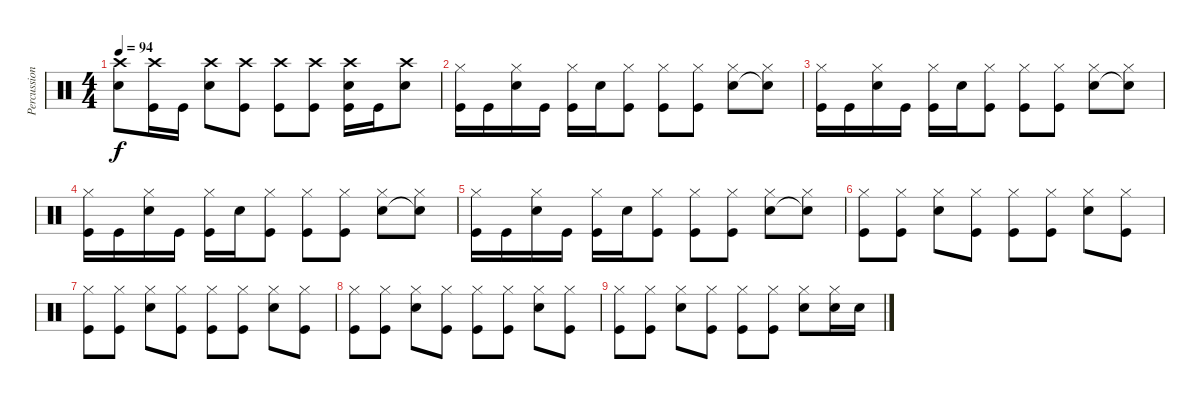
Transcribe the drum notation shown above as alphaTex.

\track ("Percussions" "Percussion") {instrument percussion}
\staff {score}
\articulation defaults
\ts (4 4)
\tempo 94
\clef neutral
\ks c
("Crash high (hit)" "Electric Snare (hit)").8{dy f} ("Crash high (hit)" "Kick (hit)").16 "Kick (hit)".16 ("Crash high (hit)" "Electric Snare (hit)").8 ("Crash high (hit)" "Kick (hit)").8 ("Crash high (hit)" "Kick (hit)").8 ("Crash high (hit)" "Kick (hit)").8 ("Crash high (hit)" "Electric Snare (hit)" "Kick (hit)").16 "Kick (hit)".16 ("Crash high (hit)" "Electric Snare (hit)").8 |
("Hi-Hat (closed)" "Kick (hit)").16 "Kick (hit)".16 ("Hi-Hat (closed)" "Electric Snare (hit)").16 "Kick (hit)".16 ("Hi-Hat (closed)" "Kick (hit)").16 "Electric Snare (hit)".16 ("Hi-Hat (closed)" "Kick (hit)").8 ("Hi-Hat (closed)" "Kick (hit)").8 ("Hi-Hat (closed)" "Kick (hit)").8 ("Hi-Hat (closed)" "Electric Snare (hit)").8 ("Hi-Hat (closed)" "Snare (hit)"{t}).8 |
("Hi-Hat (closed)" "Kick (hit)").16 "Kick (hit)".16 ("Hi-Hat (closed)" "Electric Snare (hit)").16 "Kick (hit)".16 ("Hi-Hat (closed)" "Kick (hit)").16 "Electric Snare (hit)".16 ("Hi-Hat (closed)" "Kick (hit)").8 ("Hi-Hat (closed)" "Kick (hit)").8 ("Hi-Hat (closed)" "Kick (hit)").8 ("Hi-Hat (closed)" "Electric Snare (hit)").8 ("Hi-Hat (closed)" "Snare (hit)"{t}).8 |
("Hi-Hat (closed)" "Kick (hit)").16 "Kick (hit)".16 ("Hi-Hat (closed)" "Electric Snare (hit)").16 "Kick (hit)".16 ("Hi-Hat (closed)" "Kick (hit)").16 "Electric Snare (hit)".16 ("Hi-Hat (closed)" "Kick (hit)").8 ("Hi-Hat (closed)" "Kick (hit)").8 ("Hi-Hat (closed)" "Kick (hit)").8 ("Hi-Hat (closed)" "Electric Snare (hit)").8 ("Hi-Hat (closed)" "Snare (hit)"{t}).8 |
("Hi-Hat (closed)" "Kick (hit)").16 "Kick (hit)".16 ("Hi-Hat (closed)" "Electric Snare (hit)").16 "Kick (hit)".16 ("Hi-Hat (closed)" "Kick (hit)").16 "Electric Snare (hit)".16 ("Hi-Hat (closed)" "Kick (hit)").8 ("Hi-Hat (closed)" "Kick (hit)").8 ("Hi-Hat (closed)" "Kick (hit)").8 ("Hi-Hat (closed)" "Electric Snare (hit)").8 ("Hi-Hat (closed)" "Snare (hit)"{t}).8 |
("Hi-Hat (closed)" "Kick (hit)").8 ("Hi-Hat (closed)" "Kick (hit)").8 ("Hi-Hat (closed)" "Electric Snare (hit)").8 ("Hi-Hat (closed)" "Kick (hit)").8 ("Hi-Hat (closed)" "Kick (hit)").8 ("Hi-Hat (closed)" "Kick (hit)").8 ("Hi-Hat (closed)" "Electric Snare (hit)").8 ("Hi-Hat (closed)" "Kick (hit)").8 |
("Hi-Hat (closed)" "Kick (hit)").8 ("Hi-Hat (closed)" "Kick (hit)").8 ("Hi-Hat (closed)" "Electric Snare (hit)").8 ("Hi-Hat (closed)" "Kick (hit)").8 ("Hi-Hat (closed)" "Kick (hit)").8 ("Hi-Hat (closed)" "Kick (hit)").8 ("Hi-Hat (closed)" "Electric Snare (hit)").8 ("Hi-Hat (closed)" "Kick (hit)").8 |
("Hi-Hat (closed)" "Kick (hit)").8 ("Hi-Hat (closed)" "Kick (hit)").8 ("Hi-Hat (closed)" "Electric Snare (hit)").8 ("Hi-Hat (closed)" "Kick (hit)").8 ("Hi-Hat (closed)" "Kick (hit)").8 ("Hi-Hat (closed)" "Kick (hit)").8 ("Hi-Hat (closed)" "Electric Snare (hit)").8 ("Hi-Hat (closed)" "Kick (hit)").8 |
("Hi-Hat (closed)" "Kick (hit)").8 ("Hi-Hat (closed)" "Kick (hit)").8 ("Hi-Hat (closed)" "Electric Snare (hit)").8 ("Hi-Hat (closed)" "Kick (hit)").8 ("Hi-Hat (closed)" "Kick (hit)").8 ("Hi-Hat (closed)" "Kick (hit)").8 ("Hi-Hat (closed)" "Electric Snare (hit)").8 ("Hi-Hat (closed)" "Electric Snare (hit)").16 "Electric Snare (hit)".16
